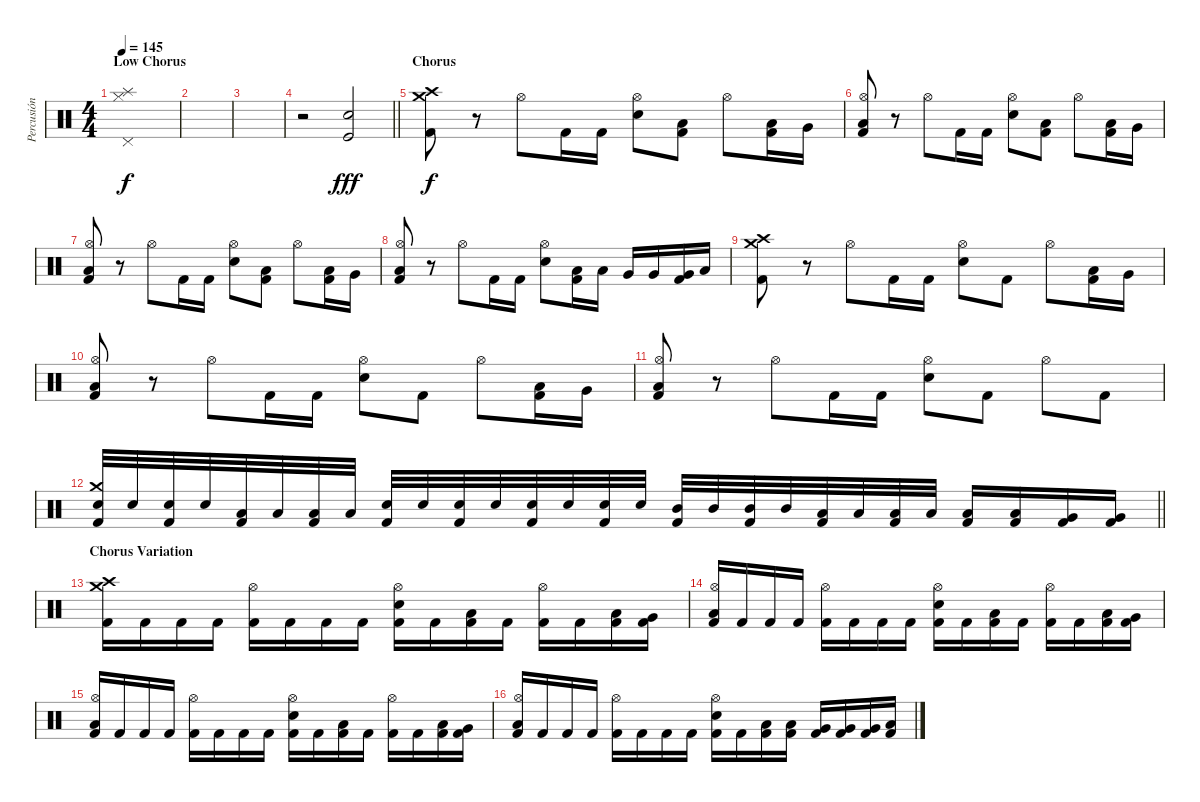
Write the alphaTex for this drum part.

\track ("Percusión" "Percusión") {instrument percussion}
\staff {score}
\articulation defaults
\ts (4 4)
\section ("" "Low Chorus")
\tempo 145
\clef neutral
\ks c
("Pedal Hi-Hat (hit)" "Hi-Hat (closed)" "Splash (hit)").1{dy f} |
|
|
\barLineRight lightlight
r.2 ("Electric Snare (hit)" "Kick (hit)").2{dy fff} |
\section ("" "Chorus")
("Crash medium (hit)" "Crash high (hit)" "Kick (hit) 2").8{dy f} r.8 "Hi-Hat (open)".8 "Kick (hit) 2".16 "Kick (hit) 2".16 ("Hi-Hat (open)" "Electric Snare (hit)").8 ("Low Tom (hit)" "Kick (hit) 2").8 "Hi-Hat (open)".8 ("Low Tom (hit)" "Kick (hit) 2").16 "Very Low Tom (hit)".16 |
("Hi-Hat (open)" "Low Floor Tom (hit)" "Kick (hit) 2").8 r.8 "Hi-Hat (open)".8 "Kick (hit) 2".16 "Kick (hit) 2".16 ("Hi-Hat (open)" "Electric Snare (hit)").8 ("Low Tom (hit)" "Kick (hit) 2").8 "Hi-Hat (open)".8 ("Low Tom (hit)" "Kick (hit) 2").16 "Very Low Tom (hit)".16 |
("Hi-Hat (open)" "Low Floor Tom (hit)" "Kick (hit) 2").8 r.8 "Hi-Hat (open)".8 "Kick (hit) 2".16 "Kick (hit) 2".16 ("Hi-Hat (open)" "Electric Snare (hit)").8 ("Low Tom (hit)" "Kick (hit) 2").8 "Hi-Hat (open)".8 ("Low Tom (hit)" "Kick (hit) 2").16 "Very Low Tom (hit)".16 |
("Hi-Hat (open)" "Low Floor Tom (hit)" "Kick (hit) 2").8 r.8 "Hi-Hat (open)".8 "Kick (hit) 2".16 "Kick (hit) 2".16 ("Hi-Hat (open)" "Electric Snare (hit)").8 ("Low Tom (hit)" "Kick (hit) 2").16 "Low Tom (hit)".16 "Very Low Tom (hit)".16 "Very Low Tom (hit)".16 ("Very Low Tom (hit)" "Kick (hit) 2").16 "Low Floor Tom (hit)".16 |
("Crash medium (hit)" "Crash high (hit)" "Kick (hit) 2").8 r.8 "Hi-Hat (open)".8 "Kick (hit) 2".16 "Kick (hit) 2".16 ("Hi-Hat (open)" "Electric Snare (hit)").8 "Kick (hit) 2".8 "Hi-Hat (open)".8 ("Low Tom (hit)" "Kick (hit) 2").16 "Very Low Tom (hit)".16 |
("Hi-Hat (open)" "Low Floor Tom (hit)" "Kick (hit) 2").8 r.8 "Hi-Hat (open)".8 "Kick (hit) 2".16 "Kick (hit) 2".16 ("Hi-Hat (open)" "Electric Snare (hit)").8 "Kick (hit) 2".8 "Hi-Hat (open)".8 ("Low Tom (hit)" "Kick (hit) 2").16 "Very Low Tom (hit)".16 |
("Hi-Hat (open)" "Low Floor Tom (hit)" "Kick (hit) 2").8 r.8 "Hi-Hat (open)".8 "Kick (hit) 2".16 "Kick (hit) 2".16 ("Hi-Hat (open)" "Electric Snare (hit)").8 "Kick (hit) 2".8 "Hi-Hat (open)".8 "Kick (hit) 2".8 |
\barLineRight lightlight
("Crash medium (hit)" "Electric Snare (hit)" "Kick (hit) 2").32 "Electric Snare (hit)".32 ("Electric Snare (hit)" "Kick (hit) 2").32 "Electric Snare (hit)".32 ("Low Tom (hit)" "Kick (hit) 2").32 "Low Tom (hit)".32 ("Low Tom (hit)" "Kick (hit) 2").32 "Low Tom (hit)".32 ("Electric Snare (hit)" "Kick (hit) 2").32 "Electric Snare (hit)".32 ("Electric Snare (hit)" "Kick (hit) 2").32 "Electric Snare (hit)".32 ("Electric Snare (hit)" "Kick (hit) 2").32 "Electric Snare (hit)".32 ("Electric Snare (hit)" "Kick (hit) 2").32 "Electric Snare (hit)".32 ("Mid Tom (hit)" "Kick (hit) 2").32 "Mid Tom (hit)".32 ("Mid Tom (hit)" "Kick (hit) 2").32 "Mid Tom (hit)".32 ("Low Tom (hit)" "Kick (hit) 2").32 "Low Tom (hit)".32 ("Low Tom (hit)" "Kick (hit) 2").32 "Low Tom (hit)".32 ("Low Tom (hit)" "Kick (hit) 2").16 ("Low Tom (hit)" "Kick (hit) 2").16 ("Very Low Tom (hit)" "Kick (hit) 2").16 ("Very Low Tom (hit)" "Kick (hit) 2").16 |
\section ("" "Chorus Variation")
("Crash medium (hit)" "Crash high (hit)" "Kick (hit) 2").16 "Kick (hit) 2".16 "Kick (hit) 2".16 "Kick (hit) 2".16 ("Hi-Hat (open)" "Kick (hit) 2").16 "Kick (hit) 2".16 "Kick (hit) 2".16 "Kick (hit) 2".16 ("Hi-Hat (open)" "Electric Snare (hit)" "Kick (hit) 2").16 "Kick (hit) 2".16 ("Low Tom (hit)" "Kick (hit) 2").16 "Kick (hit) 2".16 ("Hi-Hat (open)" "Kick (hit) 2").16 "Kick (hit) 2".16 ("Low Tom (hit)" "Kick (hit) 2").16 ("Very Low Tom (hit)" "Kick (hit) 2").16 |
("Hi-Hat (open)" "Low Floor Tom (hit)" "Kick (hit) 2").16 "Kick (hit) 2".16 "Kick (hit) 2".16 "Kick (hit) 2".16 ("Hi-Hat (open)" "Kick (hit) 2").16 "Kick (hit) 2".16 "Kick (hit) 2".16 "Kick (hit) 2".16 ("Hi-Hat (open)" "Electric Snare (hit)" "Kick (hit) 2").16 "Kick (hit) 2".16 ("Low Tom (hit)" "Kick (hit) 2").16 "Kick (hit) 2".16 ("Hi-Hat (open)" "Kick (hit) 2").16 "Kick (hit) 2".16 ("Low Tom (hit)" "Kick (hit) 2").16 ("Very Low Tom (hit)" "Kick (hit) 2").16 |
("Hi-Hat (open)" "Low Floor Tom (hit)" "Kick (hit) 2").16 "Kick (hit) 2".16 "Kick (hit) 2".16 "Kick (hit) 2".16 ("Hi-Hat (open)" "Kick (hit) 2").16 "Kick (hit) 2".16 "Kick (hit) 2".16 "Kick (hit) 2".16 ("Hi-Hat (open)" "Electric Snare (hit)" "Kick (hit) 2").16 "Kick (hit) 2".16 ("Low Tom (hit)" "Kick (hit) 2").16 "Kick (hit) 2".16 ("Hi-Hat (open)" "Kick (hit) 2").16 "Kick (hit) 2".16 ("Low Tom (hit)" "Kick (hit) 2").16 ("Very Low Tom (hit)" "Kick (hit) 2").16 |
("Hi-Hat (open)" "Low Floor Tom (hit)" "Kick (hit) 2").16 "Kick (hit) 2".16 "Kick (hit) 2".16 "Kick (hit) 2".16 ("Hi-Hat (open)" "Kick (hit) 2").16 "Kick (hit) 2".16 "Kick (hit) 2".16 "Kick (hit) 2".16 ("Hi-Hat (open)" "Electric Snare (hit)" "Kick (hit) 2").16 "Kick (hit) 2".16 ("Low Tom (hit)" "Kick (hit) 2").16 ("Low Tom (hit)" "Kick (hit) 2").16 ("Very Low Tom (hit)" "Kick (hit) 2").16 ("Very Low Tom (hit)" "Kick (hit) 2").16 ("Very Low Tom (hit)" "Kick (hit) 2").16 ("Low Floor Tom (hit)" "Kick (hit) 2").16
